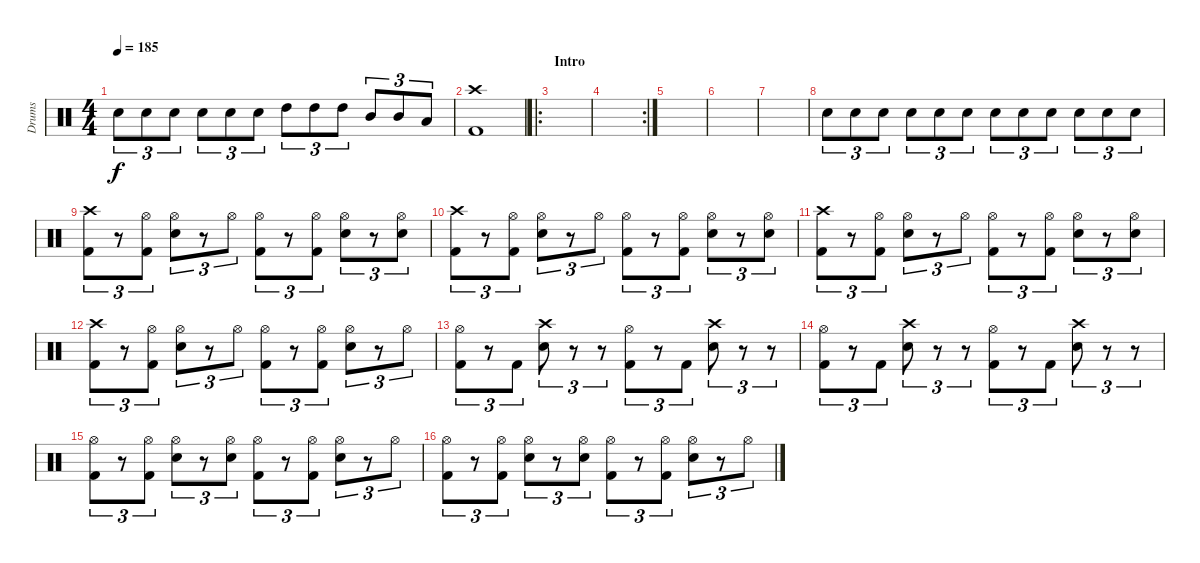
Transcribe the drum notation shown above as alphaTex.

\track ("Drums" "Drums") {instrument percussion}
\staff {score}
\articulation defaults
\ts (4 4)
\tempo 185
\clef neutral
\ks c "Electric Snare (hit)".8{tu (3 2) dy f} "Electric Snare (hit)".8{tu (3 2)} "Electric Snare (hit)".8{tu (3 2)} "Electric Snare (hit)".8{tu (3 2)} "Electric Snare (hit)".8{tu (3 2)} "Electric Snare (hit)".8{tu (3 2)} "High Tom (hit)".8{tu (3 2)} "High Tom (hit)".8{tu (3 2)} "High Tom (hit)".8{tu (3 2)} "Mid Tom (hit)".8{tu (3 2)} "Mid Tom (hit)".8{tu (3 2)} "Low Tom (hit)".8{tu (3 2)}
|
("Crash high (hit)" "Kick (hit) 2").1 |
\ro
\section ("" "Intro")
|
\rc 2
|
|
|
|
"Electric Snare (hit)".8{tu (3 2)} "Electric Snare (hit)".8{tu (3 2)} "Electric Snare (hit)".8{tu (3 2)} "Electric Snare (hit)".8{tu (3 2)} "Electric Snare (hit)".8{tu (3 2)} "Electric Snare (hit)".8{tu (3 2)} "Electric Snare (hit)".8{tu (3 2)} "Electric Snare (hit)".8{tu (3 2)} "Electric Snare (hit)".8{tu (3 2)} "Electric Snare (hit)".8{tu (3 2)} "Electric Snare (hit)".8{tu (3 2)} "Electric Snare (hit)".8{tu (3 2)} |
("Crash high (hit)" "Kick (hit) 2").8{tu (3 2)} r.8{tu (3 2)} ("Hi-Hat (open)" "Kick (hit) 2").8{tu (3 2)} ("Hi-Hat (open)" "Electric Snare (hit)").8{tu (3 2)} r.8{tu (3 2)} "Hi-Hat (open)".8{tu (3 2)} ("Hi-Hat (open)" "Kick (hit) 2").8{tu (3 2)} r.8{tu (3 2)} ("Hi-Hat (open)" "Kick (hit) 2").8{tu (3 2)} ("Hi-Hat (open)" "Electric Snare (hit)").8{tu (3 2)} r.8{tu (3 2)} ("Hi-Hat (open)" "Electric Snare (hit)").8{tu (3 2)} |
("Crash high (hit)" "Kick (hit) 2").8{tu (3 2)} r.8{tu (3 2)} ("Hi-Hat (open)" "Kick (hit) 2").8{tu (3 2)} ("Hi-Hat (open)" "Electric Snare (hit)").8{tu (3 2)} r.8{tu (3 2)} "Hi-Hat (open)".8{tu (3 2)} ("Hi-Hat (open)" "Kick (hit) 2").8{tu (3 2)} r.8{tu (3 2)} ("Hi-Hat (open)" "Kick (hit) 2").8{tu (3 2)} ("Hi-Hat (open)" "Electric Snare (hit)").8{tu (3 2)} r.8{tu (3 2)} ("Hi-Hat (open)" "Electric Snare (hit)").8{tu (3 2)} |
("Crash high (hit)" "Kick (hit) 2").8{tu (3 2)} r.8{tu (3 2)} ("Hi-Hat (open)" "Kick (hit) 2").8{tu (3 2)} ("Hi-Hat (open)" "Electric Snare (hit)").8{tu (3 2)} r.8{tu (3 2)} "Hi-Hat (open)".8{tu (3 2)} ("Hi-Hat (open)" "Kick (hit) 2").8{tu (3 2)} r.8{tu (3 2)} ("Hi-Hat (open)" "Kick (hit) 2").8{tu (3 2)} ("Hi-Hat (open)" "Electric Snare (hit)").8{tu (3 2)} r.8{tu (3 2)} ("Hi-Hat (open)" "Electric Snare (hit)").8{tu (3 2)} |
("Crash high (hit)" "Kick (hit) 2").8{tu (3 2)} r.8{tu (3 2)} ("Hi-Hat (open)" "Kick (hit) 2").8{tu (3 2)} ("Hi-Hat (open)" "Electric Snare (hit)").8{tu (3 2)} r.8{tu (3 2)} "Hi-Hat (open)".8{tu (3 2)} ("Hi-Hat (open)" "Kick (hit) 2").8{tu (3 2)} r.8{tu (3 2)} ("Hi-Hat (open)" "Kick (hit) 2").8{tu (3 2)} ("Hi-Hat (open)" "Electric Snare (hit)").8{tu (3 2)} r.8{tu (3 2)} "Hi-Hat (open)".8{tu (3 2)} |
("Hi-Hat (open)" "Kick (hit) 2").8{tu (3 2)} r.8{tu (3 2)} "Kick (hit) 2".8{tu (3 2)} ("Crash high (hit)" "Electric Snare (hit)").8{tu (3 2)} r.8{tu (3 2)} r.8{tu (3 2)} ("Hi-Hat (open)" "Kick (hit) 2").8{tu (3 2)} r.8{tu (3 2)} "Kick (hit) 2".8{tu (3 2)} ("Crash high (hit)" "Electric Snare (hit)").8{tu (3 2)} r.8{tu (3 2)} r.8{tu (3 2)} |
("Hi-Hat (open)" "Kick (hit) 2").8{tu (3 2)} r.8{tu (3 2)} "Kick (hit) 2".8{tu (3 2)} ("Crash high (hit)" "Electric Snare (hit)").8{tu (3 2)} r.8{tu (3 2)} r.8{tu (3 2)} ("Hi-Hat (open)" "Kick (hit) 2").8{tu (3 2)} r.8{tu (3 2)} "Kick (hit) 2".8{tu (3 2)} ("Crash high (hit)" "Electric Snare (hit)").8{tu (3 2)} r.8{tu (3 2)} r.8{tu (3 2)} |
("Hi-Hat (open)" "Kick (hit) 2").8{tu (3 2)} r.8{tu (3 2)} ("Hi-Hat (open)" "Kick (hit) 2").8{tu (3 2)} ("Hi-Hat (open)" "Electric Snare (hit)").8{tu (3 2)} r.8{tu (3 2)} ("Hi-Hat (open)" "Electric Snare (hit)").8{tu (3 2)} ("Hi-Hat (open)" "Kick (hit) 2").8{tu (3 2)} r.8{tu (3 2)} ("Hi-Hat (open)" "Kick (hit) 2").8{tu (3 2)} ("Hi-Hat (open)" "Electric Snare (hit)").8{tu (3 2)} r.8{tu (3 2)} "Hi-Hat (open)".8{tu (3 2)} |
("Hi-Hat (open)" "Kick (hit) 2").8{tu (3 2)} r.8{tu (3 2)} ("Hi-Hat (open)" "Kick (hit) 2").8{tu (3 2)} ("Hi-Hat (open)" "Electric Snare (hit)").8{tu (3 2)} r.8{tu (3 2)} ("Hi-Hat (open)" "Electric Snare (hit)").8{tu (3 2)} ("Hi-Hat (open)" "Kick (hit) 2").8{tu (3 2)} r.8{tu (3 2)} ("Hi-Hat (open)" "Kick (hit) 2").8{tu (3 2)} ("Hi-Hat (open)" "Electric Snare (hit)").8{tu (3 2)} r.8{tu (3 2)} "Hi-Hat (open)".8{tu (3 2)}
